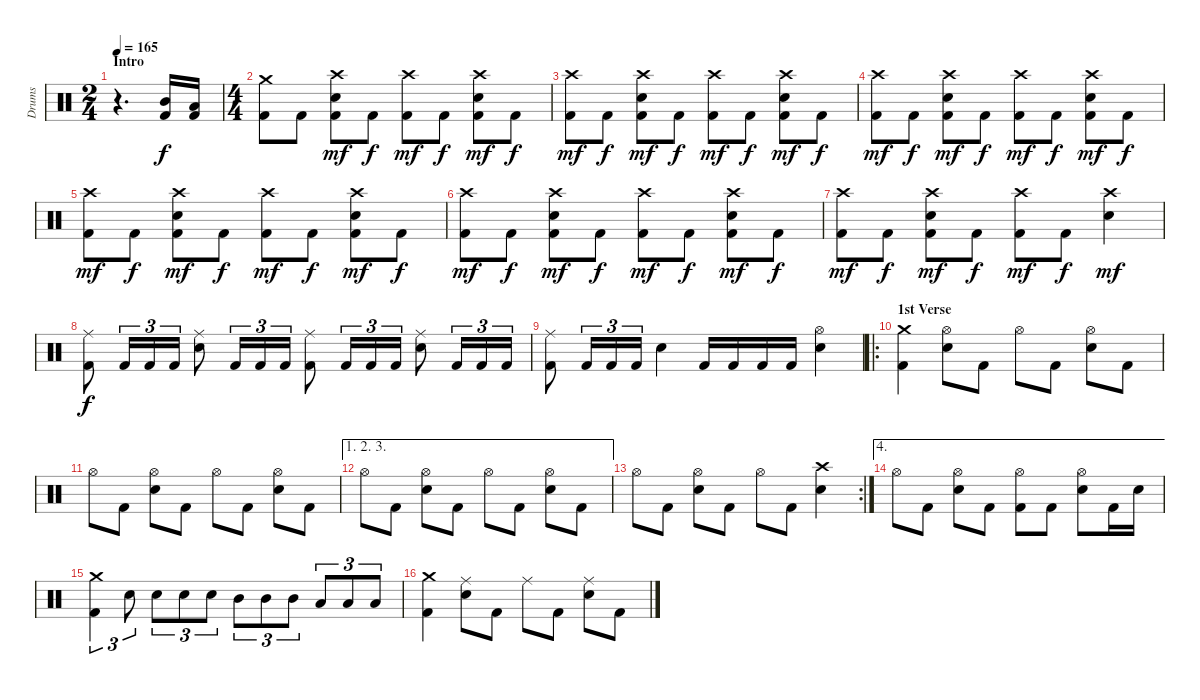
\track ("Drums" "Drums") {instrument percussion}
\staff {score}
\articulation defaults
\ts (2 4)
\section ("" "Intro")
\tempo 165
\clef neutral
\ks c
r.4{d dy f} ("Kick (hit) 2" "Mid Tom (hit)").16 ("Kick (hit) 2" "Low Tom (hit)").16 |
\ts (4 4)
("Kick (hit) 2" "Crash medium (hit)").8 "Kick (hit) 2".8 ("Kick (hit) 2" "Electric Snare (hit)" "Crash high (hit)").8{dy mf} "Kick (hit) 2".8{dy f} ("Kick (hit) 2" "Crash high (hit)").8{dy mf} "Kick (hit) 2".8{dy f} ("Kick (hit) 2" "Electric Snare (hit)" "Crash high (hit)").8{dy mf} "Kick (hit) 2".8{dy f} |
("Kick (hit) 2" "Crash high (hit)").8{dy mf} "Kick (hit) 2".8{dy f} ("Kick (hit) 2" "Electric Snare (hit)" "Crash high (hit)").8{dy mf} "Kick (hit) 2".8{dy f} ("Kick (hit) 2" "Crash high (hit)").8{dy mf} "Kick (hit) 2".8{dy f} ("Kick (hit) 2" "Electric Snare (hit)" "Crash high (hit)").8{dy mf} "Kick (hit) 2".8{dy f} |
("Kick (hit) 2" "Crash high (hit)").8{dy mf} "Kick (hit) 2".8{dy f} ("Kick (hit) 2" "Electric Snare (hit)" "Crash high (hit)").8{dy mf} "Kick (hit) 2".8{dy f} ("Kick (hit) 2" "Crash high (hit)").8{dy mf} "Kick (hit) 2".8{dy f} ("Kick (hit) 2" "Electric Snare (hit)" "Crash high (hit)").8{dy mf} "Kick (hit) 2".8{dy f} |
("Kick (hit) 2" "Crash high (hit)").8{dy mf} "Kick (hit) 2".8{dy f} ("Kick (hit) 2" "Electric Snare (hit)" "Crash high (hit)").8{dy mf} "Kick (hit) 2".8{dy f} ("Kick (hit) 2" "Crash high (hit)").8{dy mf} "Kick (hit) 2".8{dy f} ("Kick (hit) 2" "Electric Snare (hit)" "Crash high (hit)").8{dy mf} "Kick (hit) 2".8{dy f} |
("Kick (hit) 2" "Crash high (hit)").8{dy mf} "Kick (hit) 2".8{dy f} ("Kick (hit) 2" "Electric Snare (hit)" "Crash high (hit)").8{dy mf} "Kick (hit) 2".8{dy f} ("Kick (hit) 2" "Crash high (hit)").8{dy mf} "Kick (hit) 2".8{dy f} ("Kick (hit) 2" "Electric Snare (hit)" "Crash high (hit)").8{dy mf} "Kick (hit) 2".8{dy f} |
("Kick (hit) 2" "Crash high (hit)").8{dy mf} "Kick (hit) 2".8{dy f} ("Kick (hit) 2" "Electric Snare (hit)" "Crash high (hit)").8{dy mf} "Kick (hit) 2".8{dy f} ("Kick (hit) 2" "Crash high (hit)").8{dy mf} "Kick (hit) 2".8{dy f} ("Electric Snare (hit)" "Crash high (hit)").4{dy mf} |
("Kick (hit) 2" "Ride (middle)").8{dy f} "Kick (hit) 2".16{tu (3 2)} "Kick (hit) 2".16{tu (3 2)} "Kick (hit) 2".16{tu (3 2)} ("Electric Snare (hit)" "Ride (middle)").8 "Kick (hit) 2".16{tu (3 2)} "Kick (hit) 2".16{tu (3 2)} "Kick (hit) 2".16{tu (3 2)} ("Kick (hit) 2" "Ride (middle)").8 "Kick (hit) 2".16{tu (3 2)} "Kick (hit) 2".16{tu (3 2)} "Kick (hit) 2".16{tu (3 2)} ("Electric Snare (hit)" "Ride (middle)").8 "Kick (hit) 2".16{tu (3 2)} "Kick (hit) 2".16{tu (3 2)} "Kick (hit) 2".16{tu (3 2)} |
("Kick (hit) 2" "Ride (middle)").8 "Kick (hit) 2".16{tu (3 2)} "Kick (hit) 2".16{tu (3 2)} "Kick (hit) 2".16{tu (3 2)} "Electric Snare (hit)".4 "Kick (hit) 2".16 "Kick (hit) 2".16 "Kick (hit) 2".16 "Kick (hit) 2".16 ("Electric Snare (hit)" "Hi-Hat (open)").4 |
\ro
\section ("" "1st Verse")
("Kick (hit) 2" "Crash medium (hit)").4 ("Electric Snare (hit)" "Hi-Hat (open)").8 "Kick (hit) 2".8 "Hi-Hat (open)".8 "Kick (hit) 2".8 ("Electric Snare (hit)" "Hi-Hat (open)").8 "Kick (hit) 2".8 |
"Hi-Hat (open)".8 "Kick (hit) 2".8 ("Electric Snare (hit)" "Hi-Hat (open)").8 "Kick (hit) 2".8 "Hi-Hat (open)".8 "Kick (hit) 2".8 ("Electric Snare (hit)" "Hi-Hat (open)").8 "Kick (hit) 2".8 |
\ae (1 2 3)
"Hi-Hat (open)".8 "Kick (hit) 2".8 ("Electric Snare (hit)" "Hi-Hat (open)").8 "Kick (hit) 2".8 "Hi-Hat (open)".8 "Kick (hit) 2".8 ("Electric Snare (hit)" "Hi-Hat (open)").8 "Kick (hit) 2".8 |
\rc 2 "Hi-Hat (open)".8 "Kick (hit) 2".8
("Electric Snare (hit)" "Hi-Hat (open)").8 "Kick (hit) 2".8 "Hi-Hat (open)".8 "Kick (hit) 2".8 ("Electric Snare (hit)" "Crash high (hit)").4 |
\ae 4 "Hi-Hat (open)".8 "Kick (hit) 2".8
("Electric Snare (hit)" "Hi-Hat (open)").8 "Kick (hit) 2".8 ("Kick (hit) 2" "Hi-Hat (open)").8 "Kick (hit) 2".8 ("Electric Snare (hit)" "Hi-Hat (open)").8 "Kick (hit) 2".16 "Electric Snare (hit)".16 |
("Kick (hit) 2" "Crash medium (hit)").4{tu (3 2)} "Electric Snare (hit)".8{tu (3 2)} "Electric Snare (hit)".8{tu (3 2)} "Electric Snare (hit)".8{tu (3 2)} "Electric Snare (hit)".8{tu (3 2)} "Mid Tom (hit)".8{tu (3 2)} "Mid Tom (hit)".8{tu (3 2)} "Mid Tom (hit)".8{tu (3 2)} "Low Tom (hit)".8{tu (3 2)} "Low Tom (hit)".8{tu (3 2)} "Low Tom (hit)".8{tu (3 2)} |
("Kick (hit) 2" "Crash medium (hit)").4 ("Electric Snare (hit)" "Ride (middle)").8 "Kick (hit) 2".8 "Ride (middle)".8 "Kick (hit) 2".8 ("Electric Snare (hit)" "Ride (middle)").8 "Kick (hit) 2".8
